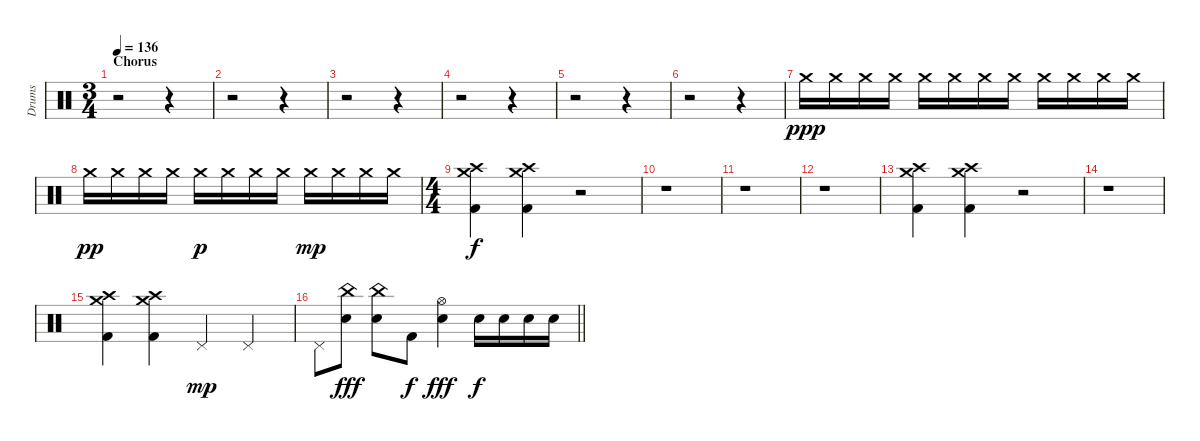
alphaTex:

\track ("Drums" "Drums") {instrument percussion}
\staff {score}
\articulation defaults
\ts (3 4)
\section ("" "Chorus")
\tempo 136
\clef neutral
\ks c
r.2{dy pp} r.4 |
r.2 r.4 |
r.2 r.4 |
r.2 r.4 |
r.2 r.4 |
r.2 r.4 |
"Crash medium (hit)".16{dy ppp} "Crash medium (hit)".16 "Crash medium (hit)".16 "Crash medium (hit)".16 "Crash medium (hit)".16 "Crash medium (hit)".16 "Crash medium (hit)".16 "Crash medium (hit)".16 "Crash medium (hit)".16 "Crash medium (hit)".16 "Crash medium (hit)".16 "Crash medium (hit)".16 |
"Crash medium (hit)".16{dy pp} "Crash medium (hit)".16 "Crash medium (hit)".16 "Crash medium (hit)".16 "Crash medium (hit)".16{dy p} "Crash medium (hit)".16 "Crash medium (hit)".16 "Crash medium (hit)".16 "Crash medium (hit)".16{dy mp} "Crash medium (hit)".16 "Crash medium (hit)".16 "Crash medium (hit)".16 |
\ts (4 4)
("Crash medium (hit)" "Crash high (hit)" "Kick (hit) 2").4{dy f} ("Crash medium (hit)" "Crash high (hit)" "Kick (hit) 2").4 r.2 |
r.1 |
r.1 |
r.1 |
("Crash medium (hit)" "Crash high (hit)" "Kick (hit) 2").4 ("Crash medium (hit)" "Crash high (hit)" "Kick (hit) 2").4 r.2 |
r.1 |
("Crash medium (hit)" "Crash high (hit)" "Kick (hit) 2").4 ("Crash medium (hit)" "Crash high (hit)" "Kick (hit) 2").4 "Pedal Hi-Hat (hit)".4{dy mp} "Pedal Hi-Hat (hit)".4 |
\barLineRight lightlight "Pedal Hi-Hat (hit)".8
("China (hit)" "Electric Snare (hit)").8{dy fff} ("China (hit)" "Electric Snare (hit)").8 "Kick (hit) 2".8{dy f} ("Hi-Hat (open)" "Electric Snare (hit)").4{dy fff} "Electric Snare (hit)".16{dy f} "Electric Snare (hit)".16 "Electric Snare (hit)".16 "Electric Snare (hit)".16
